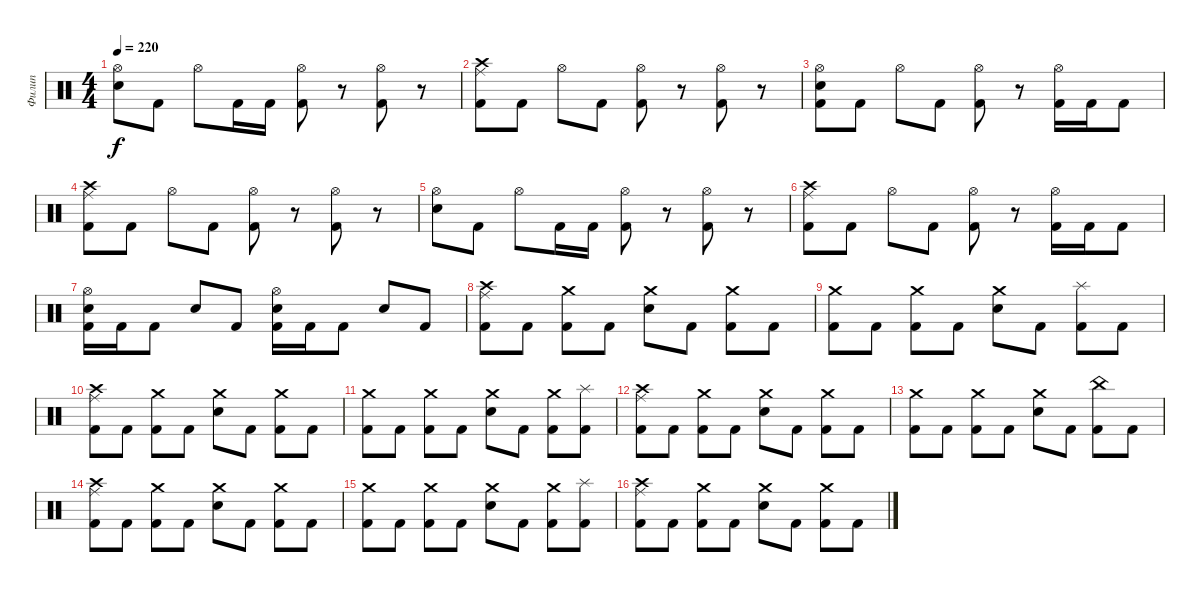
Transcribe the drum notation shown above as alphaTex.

\track ("Филип" "Филип") {instrument percussion}
\staff {score}
\articulation defaults
\ts (4 4)
\tempo 220
\clef neutral
\ks c
("Hi-Hat (open)" "Electric Snare (hit)").8{dy f} "Kick (hit) 2".8 "Hi-Hat (open)".8 "Kick (hit) 2".16 "Kick (hit) 2".16 ("Kick (hit) 2" "Hi-Hat (open)").8 r.8 ("Hi-Hat (open)" "Kick (hit) 2").8 r.8 |
("Crash high (hit)" "Ride (middle)" "Kick (hit) 2").8 "Kick (hit) 2".8 "Hi-Hat (open)".8 "Kick (hit) 2".8 ("Kick (hit) 2" "Hi-Hat (open)").8 r.8 ("Hi-Hat (open)" "Kick (hit) 2").8 r.8 |
("Kick (hit) 2" "Hi-Hat (open)" "Electric Snare (hit)").8 "Kick (hit) 2".8 "Hi-Hat (open)".8 "Kick (hit) 2".8 ("Kick (hit) 2" "Hi-Hat (open)").8 r.8 ("Hi-Hat (open)" "Kick (hit) 2").16 "Kick (hit) 2".16 "Kick (hit) 2".8 |
("Crash high (hit)" "Ride (middle)" "Kick (hit) 2").8 "Kick (hit) 2".8 "Hi-Hat (open)".8 "Kick (hit) 2".8 ("Kick (hit) 2" "Hi-Hat (open)").8 r.8 ("Hi-Hat (open)" "Kick (hit) 2").8 r.8 |
("Hi-Hat (open)" "Electric Snare (hit)").8 "Kick (hit) 2".8 "Hi-Hat (open)".8 "Kick (hit) 2".16 "Kick (hit) 2".16 ("Kick (hit) 2" "Hi-Hat (open)").8 r.8 ("Hi-Hat (open)" "Kick (hit) 2").8 r.8 |
("Crash high (hit)" "Ride (middle)" "Kick (hit) 2").8 "Kick (hit) 2".8 "Hi-Hat (open)".8 "Kick (hit) 2".8 ("Kick (hit) 2" "Hi-Hat (open)").8 r.8 ("Hi-Hat (open)" "Kick (hit) 2").16 "Kick (hit) 2".16 "Kick (hit) 2".8 |
("Snare (hit) 2" "Hi-Hat (open)" "Kick (hit) 2").16 "Kick (hit) 2".16 "Kick (hit) 2".8 "Snare (hit) 2".8 "Kick (hit) 2".8 ("Snare (hit) 2" "Hi-Hat (open)" "Kick (hit) 2").16 "Kick (hit) 2".16 "Kick (hit) 2".8 "Snare (hit) 2".8 "Kick (hit) 2".8 |
("Crash high (hit)" "Ride (middle)" "Kick (hit) 2").8 "Kick (hit) 2".8 ("Crash medium (hit)" "Kick (hit) 2").8 "Kick (hit) 2".8 ("Crash medium (hit)" "Electric Snare (hit)").8 "Kick (hit) 2".8 ("Crash medium (hit)" "Kick (hit) 2").8 "Kick (hit) 2".8 |
("Crash medium (hit)" "Kick (hit) 2").8 "Kick (hit) 2".8 ("Crash medium (hit)" "Kick (hit) 2").8 "Kick (hit) 2".8 ("Crash medium (hit)" "Electric Snare (hit)").8 "Kick (hit) 2".8 ("Splash (hit)" "Kick (hit) 2").8 "Kick (hit) 2".8 |
("Crash high (hit)" "Ride (middle)" "Kick (hit) 2").8 "Kick (hit) 2".8 ("Crash medium (hit)" "Kick (hit) 2").8 "Kick (hit) 2".8 ("Crash medium (hit)" "Electric Snare (hit)").8 "Kick (hit) 2".8 ("Crash medium (hit)" "Kick (hit) 2").8 "Kick (hit) 2".8 |
("Crash medium (hit)" "Kick (hit) 2").8 "Kick (hit) 2".8 ("Crash medium (hit)" "Kick (hit) 2").8 "Kick (hit) 2".8 ("Crash medium (hit)" "Electric Snare (hit)").8 "Kick (hit) 2".8 ("Crash medium (hit)" "Kick (hit) 2").8 ("Splash (hit)" "Kick (hit) 2").8 |
("Crash high (hit)" "Ride (middle)" "Kick (hit) 2").8 "Kick (hit) 2".8 ("Crash medium (hit)" "Kick (hit) 2").8 "Kick (hit) 2".8 ("Crash medium (hit)" "Electric Snare (hit)").8 "Kick (hit) 2".8 ("Crash medium (hit)" "Kick (hit) 2").8 "Kick (hit) 2".8 |
("Crash medium (hit)" "Kick (hit) 2").8 "Kick (hit) 2".8 ("Crash medium (hit)" "Kick (hit) 2").8 "Kick (hit) 2".8 ("Crash medium (hit)" "Electric Snare (hit)").8 "Kick (hit) 2".8 ("China (hit)" "Kick (hit) 2").8 "Kick (hit) 2".8 |
("Crash high (hit)" "Ride (middle)" "Kick (hit) 2").8 "Kick (hit) 2".8 ("Crash medium (hit)" "Kick (hit) 2").8 "Kick (hit) 2".8 ("Crash medium (hit)" "Electric Snare (hit)").8 "Kick (hit) 2".8 ("Crash medium (hit)" "Kick (hit) 2").8 "Kick (hit) 2".8 |
("Crash medium (hit)" "Kick (hit) 2").8 "Kick (hit) 2".8 ("Crash medium (hit)" "Kick (hit) 2").8 "Kick (hit) 2".8 ("Crash medium (hit)" "Electric Snare (hit)").8 "Kick (hit) 2".8 ("Crash medium (hit)" "Kick (hit) 2").8 ("Splash (hit)" "Kick (hit) 2").8 |
("Crash high (hit)" "Ride (middle)" "Kick (hit) 2").8 "Kick (hit) 2".8 ("Crash medium (hit)" "Kick (hit) 2").8 "Kick (hit) 2".8 ("Crash medium (hit)" "Electric Snare (hit)").8 "Kick (hit) 2".8 ("Crash medium (hit)" "Kick (hit) 2").8 "Kick (hit) 2".8
